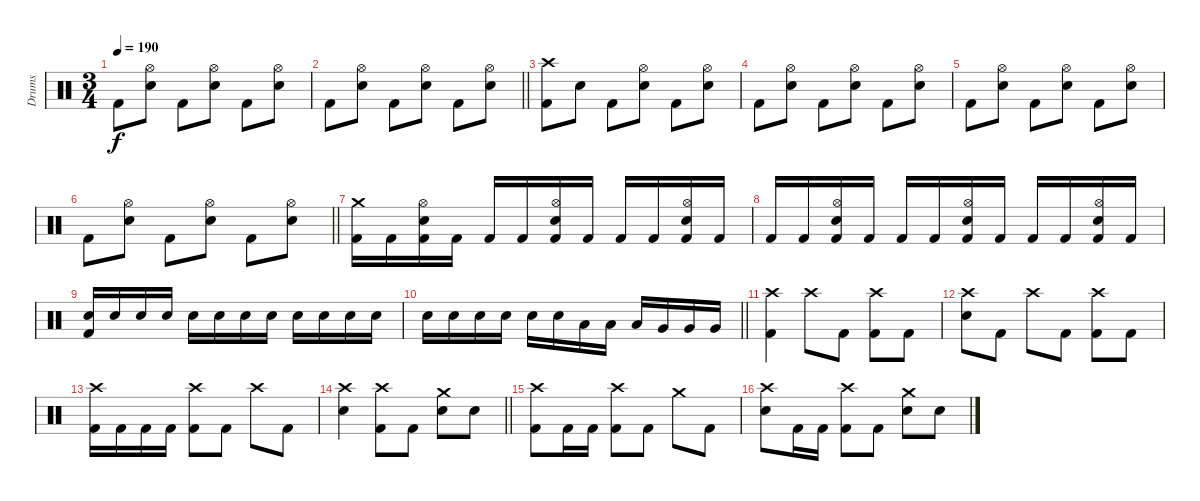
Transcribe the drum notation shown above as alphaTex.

\track ("Drums" "Drums") {instrument percussion}
\staff {score}
\articulation defaults
\ts (3 4)
\tempo 190
\clef neutral
\ks c "Kick (hit) 2".8{dy f}
("Hi-Hat (open)" "Electric Snare (hit)").8 "Kick (hit) 2".8 ("Hi-Hat (open)" "Electric Snare (hit)").8 "Kick (hit) 2".8 ("Hi-Hat (open)" "Electric Snare (hit)").8 |
\barLineRight lightlight "Kick (hit) 2".8
("Hi-Hat (open)" "Electric Snare (hit)").8 "Kick (hit) 2".8 ("Hi-Hat (open)" "Electric Snare (hit)").8 "Kick (hit) 2".8 ("Hi-Hat (open)" "Electric Snare (hit)").8 |
("Crash high (hit)" "Kick (hit) 2").8 "Electric Snare (hit)".8 "Kick (hit) 2".8 ("Hi-Hat (open)" "Electric Snare (hit)").8 "Kick (hit) 2".8 ("Hi-Hat (open)" "Electric Snare (hit)").8 |
"Kick (hit) 2".8 ("Hi-Hat (open)" "Electric Snare (hit)").8 "Kick (hit) 2".8 ("Hi-Hat (open)" "Electric Snare (hit)").8 "Kick (hit) 2".8 ("Hi-Hat (open)" "Electric Snare (hit)").8 |
"Kick (hit) 2".8 ("Hi-Hat (open)" "Electric Snare (hit)").8 "Kick (hit) 2".8 ("Hi-Hat (open)" "Electric Snare (hit)").8 "Kick (hit) 2".8 ("Hi-Hat (open)" "Electric Snare (hit)").8 |
\barLineRight lightlight "Kick (hit) 2".8
("Hi-Hat (open)" "Electric Snare (hit)").8 "Kick (hit) 2".8 ("Hi-Hat (open)" "Electric Snare (hit)").8 "Kick (hit) 2".8 ("Hi-Hat (open)" "Electric Snare (hit)").8 |
("Crash medium (hit)" "Kick (hit) 2").16 "Kick (hit) 2".16 ("Hi-Hat (open)" "Electric Snare (hit)" "Kick (hit) 2").16 "Kick (hit) 2".16 "Kick (hit) 2".16 "Kick (hit) 2".16 ("Hi-Hat (open)" "Electric Snare (hit)" "Kick (hit) 2").16 "Kick (hit) 2".16 "Kick (hit) 2".16 "Kick (hit) 2".16 ("Hi-Hat (open)" "Electric Snare (hit)" "Kick (hit) 2").16 "Kick (hit) 2".16 |
"Kick (hit) 2".16 "Kick (hit) 2".16 ("Hi-Hat (open)" "Electric Snare (hit)" "Kick (hit) 2").16 "Kick (hit) 2".16 "Kick (hit) 2".16 "Kick (hit) 2".16 ("Hi-Hat (open)" "Electric Snare (hit)" "Kick (hit) 2").16 "Kick (hit) 2".16 "Kick (hit) 2".16 "Kick (hit) 2".16 ("Hi-Hat (open)" "Electric Snare (hit)" "Kick (hit) 2").16 "Kick (hit) 2".16 |
("Electric Snare (hit)" "Kick (hit) 2").16 "Electric Snare (hit)".16 "Electric Snare (hit)".16 "Electric Snare (hit)".16 "Electric Snare (hit)".16 "Electric Snare (hit)".16 "Electric Snare (hit)".16 "Electric Snare (hit)".16 "Electric Snare (hit)".16 "Electric Snare (hit)".16 "Electric Snare (hit)".16 "Electric Snare (hit)".16 |
\barLineRight lightlight "Electric Snare (hit)".16 "Electric Snare (hit)".16 "Electric Snare (hit)".16 "Electric Snare (hit)".16 "Electric Snare (hit)".16 "Electric Snare (hit)".16 "Low Tom (hit)".16 "Low Tom (hit)".16 "Low Tom (hit)".16 "Very Low Tom (hit)".16 "Very Low Tom (hit)".16 "Very Low Tom (hit)".16
|
("Crash high (hit)" "Kick (hit) 2").4 "Crash high (hit)".8 "Kick (hit) 2".8 ("Crash high (hit)" "Kick (hit) 2").8 "Kick (hit) 2".8 |
("Crash high (hit)" "Electric Snare (hit)").8 "Kick (hit) 2".8 "Crash high (hit)".8 "Kick (hit) 2".8 ("Crash high (hit)" "Kick (hit) 2").8 "Kick (hit) 2".8 |
("Crash high (hit)" "Kick (hit) 2").16 "Kick (hit) 2".16 "Kick (hit) 2".16 "Kick (hit) 2".16 ("Crash high (hit)" "Kick (hit) 2").8 "Kick (hit) 2".8 "Crash high (hit)".8 "Kick (hit) 2".8 |
\barLineRight lightlight
("Crash high (hit)" "Electric Snare (hit)").4 ("Crash high (hit)" "Kick (hit) 2").8 "Kick (hit) 2".8 ("Crash medium (hit)" "Electric Snare (hit)").8 "Electric Snare (hit)".8 |
("Crash high (hit)" "Kick (hit) 2").8 "Kick (hit) 2".16 "Kick (hit) 2".16 ("Crash high (hit)" "Kick (hit) 2").8 "Kick (hit) 2".8 "Crash medium (hit)".8 "Kick (hit) 2".8 |
("Crash high (hit)" "Electric Snare (hit)").8 "Kick (hit) 2".16 "Kick (hit) 2".16 ("Crash high (hit)" "Kick (hit) 2").8 "Kick (hit) 2".8 ("Crash medium (hit)" "Electric Snare (hit)").8 "Electric Snare (hit)".8
